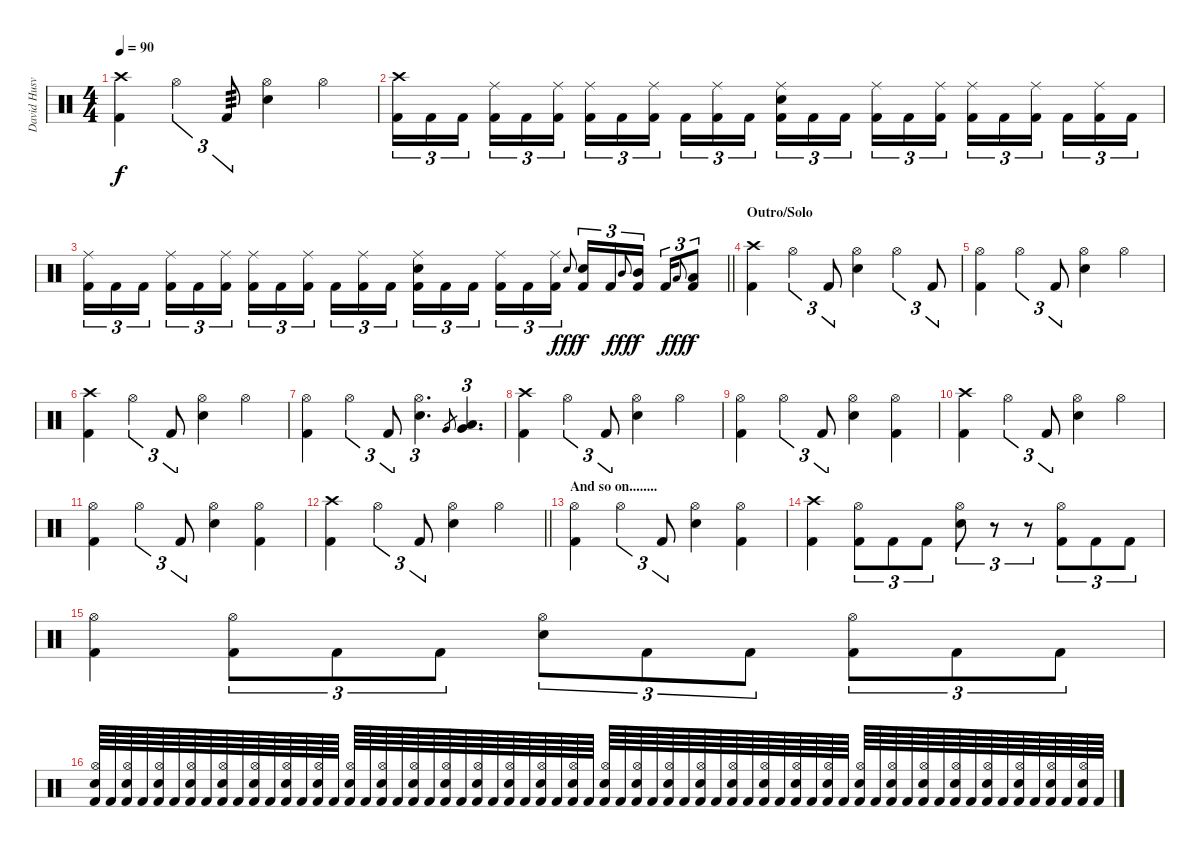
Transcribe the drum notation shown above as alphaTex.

\track ("David Husvik" "David Husv") {instrument percussion}
\staff {score}
\articulation defaults
\ts (4 4)
\tempo 90
\clef neutral
\ks c
("Crash high (hit)" "Kick (hit) 2").4{dy f} "Hi-Hat (open)".4{tu (3 2)} "Kick (hit) 2".8{tu (3 2) tp 3} ("Hi-Hat (open)" "Snare (hit) 2").4 "Hi-Hat (open)".4 |
("Kick (hit) 2" "Crash high (hit)").16{tu (3 2)} "Kick (hit) 2".16{tu (3 2)} "Kick (hit) 2".16{tu (3 2) beam splitsecondary} ("Kick (hit) 2" "Ride (middle)").16{tu (3 2)} "Kick (hit) 2".16{tu (3 2)} ("Kick (hit) 2" "Ride (middle)").16{tu (3 2)} ("Kick (hit) 2" "Ride (middle)").16{tu (3 2)} "Kick (hit) 2".16{tu (3 2)} ("Kick (hit) 2" "Ride (middle)").16{tu (3 2) beam splitsecondary} "Kick (hit) 2".16{tu (3 2)} ("Kick (hit) 2" "Ride (middle)").16{tu (3 2)} "Kick (hit) 2".16{tu (3 2)} ("Kick (hit) 2" "Snare (hit) 2" "Ride (middle)").16{tu (3 2)} "Kick (hit) 2".16{tu (3 2)} "Kick (hit) 2".16{tu (3 2) beam splitsecondary} ("Kick (hit) 2" "Ride (middle)").16{tu (3 2)} "Kick (hit) 2".16{tu (3 2)} ("Kick (hit) 2" "Ride (middle)").16{tu (3 2)} ("Kick (hit) 2" "Ride (middle)").16{tu (3 2)} "Kick (hit) 2".16{tu (3 2)} ("Kick (hit) 2" "Ride (middle)").16{tu (3 2) beam splitsecondary} "Kick (hit) 2".16{tu (3 2)} ("Kick (hit) 2" "Ride (middle)").16{tu (3 2)} "Kick (hit) 2".16{tu (3 2)} |
\barLineRight lightlight
("Kick (hit) 2" "Ride (middle)").16{tu (3 2)} "Kick (hit) 2".16{tu (3 2)} "Kick (hit) 2".16{tu (3 2) beam splitsecondary} ("Kick (hit) 2" "Ride (middle)").16{tu (3 2)} "Kick (hit) 2".16{tu (3 2)} ("Kick (hit) 2" "Ride (middle)").16{tu (3 2)} ("Kick (hit) 2" "Ride (middle)").16{tu (3 2)} "Kick (hit) 2".16{tu (3 2)} ("Kick (hit) 2" "Ride (middle)").16{tu (3 2) beam splitsecondary} "Kick (hit) 2".16{tu (3 2)} ("Kick (hit) 2" "Ride (middle)").16{tu (3 2)} "Kick (hit) 2".16{tu (3 2)} ("Kick (hit) 2" "Snare (hit) 2" "Ride (middle)").16{tu (3 2)} "Kick (hit) 2".16{tu (3 2)} "Kick (hit) 2".16{tu (3 2) beam splitsecondary} ("Kick (hit) 2" "Ride (middle)").16{tu (3 2)} "Kick (hit) 2".16{tu (3 2)} ("Kick (hit) 2" "Ride (middle)").16{tu (3 2)} "Snare (hit) 2".8{gr onbeat dy fff} ("Kick (hit) 2" "Snare (hit) 2").16{tu (3 2) dy f} "Kick (hit) 2".16{tu (3 2)} "Mid Tom (hit)".8{gr onbeat dy fff} ("Kick (hit) 2" "Mid Tom (hit)").16{tu (3 2) dy f beam splitsecondary} "Kick (hit) 2".16{tu (3 2)} "Low Tom (hit)".8{gr onbeat dy fff} ("Kick (hit) 2" "Low Tom (hit)").8{tu (3 2) dy f} |
\section ("" "Outro/Solo")
("Crash high (hit)" "Kick (hit) 2").4 "Hi-Hat (open)".4{tu (3 2)} "Kick (hit) 2".8{tu (3 2)} ("Hi-Hat (open)" "Snare (hit) 2").4 "Hi-Hat (open)".4{tu (3 2)} "Kick (hit) 2".8{tu (3 2)} |
("Hi-Hat (open)" "Kick (hit) 2").4 "Hi-Hat (open)".4{tu (3 2)} "Kick (hit) 2".8{tu (3 2)} ("Hi-Hat (open)" "Snare (hit) 2").4 "Hi-Hat (open)".4 |
("Crash high (hit)" "Kick (hit) 2").4 "Hi-Hat (open)".4{tu (3 2)} "Kick (hit) 2".8{tu (3 2)} ("Hi-Hat (open)" "Snare (hit) 2").4 "Hi-Hat (open)".4 |
("Hi-Hat (open)" "Kick (hit) 2").4 "Hi-Hat (open)".4{tu (3 2)} "Kick (hit) 2".8{tu (3 2)} ("Hi-Hat (open)" "Snare (hit) 2").4{d tu (3 2)} "Very Low Tom (hit)".8{gr} ("Very Low Tom (hit)" "Low Tom (hit)").4{d tu (3 2)} |
("Crash high (hit)" "Kick (hit) 2").4 "Hi-Hat (open)".4{tu (3 2)} "Kick (hit) 2".8{tu (3 2)} ("Hi-Hat (open)" "Snare (hit) 2").4 "Hi-Hat (open)".4 |
("Hi-Hat (open)" "Kick (hit) 2").4 "Hi-Hat (open)".4{tu (3 2)} "Kick (hit) 2".8{tu (3 2)} ("Hi-Hat (open)" "Snare (hit) 2").4 ("Hi-Hat (open)" "Kick (hit) 2").4 |
("Crash high (hit)" "Kick (hit) 2").4 "Hi-Hat (open)".4{tu (3 2)} "Kick (hit) 2".8{tu (3 2)} ("Hi-Hat (open)" "Snare (hit) 2").4 "Hi-Hat (open)".4 |
("Hi-Hat (open)" "Kick (hit) 2").4 "Hi-Hat (open)".4{tu (3 2)} "Kick (hit) 2".8{tu (3 2)} ("Hi-Hat (open)" "Snare (hit) 2").4 ("Hi-Hat (open)" "Kick (hit) 2").4 |
\barLineRight lightlight
("Crash high (hit)" "Kick (hit) 2").4 "Hi-Hat (open)".4{tu (3 2)} "Kick (hit) 2".8{tu (3 2)} ("Hi-Hat (open)" "Snare (hit) 2").4 "Hi-Hat (open)".4 |
\section ("" "And so on........")
("Hi-Hat (open)" "Kick (hit) 2").4 "Hi-Hat (open)".4{tu (3 2)} "Kick (hit) 2".8{tu (3 2)} ("Hi-Hat (open)" "Snare (hit) 2").4 ("Hi-Hat (open)" "Kick (hit) 2").4 |
("Kick (hit) 2" "Crash high (hit)").4 ("Hi-Hat (open)" "Kick (hit) 2").8{tu (3 2)} "Kick (hit) 2".8{tu (3 2)} "Kick (hit) 2".8{tu (3 2)} ("Hi-Hat (open)" "Snare (hit) 2").8{tu (3 2)} r.8{tu (3 2)} r.8{tu (3 2)} ("Kick (hit) 2" "Hi-Hat (open)").8{tu (3 2)} "Kick (hit) 2".8{tu (3 2)} "Kick (hit) 2".8{tu (3 2)} |
("Kick (hit) 2" "Hi-Hat (open)").4 ("Hi-Hat (open)" "Kick (hit) 2").8{tu (3 2)} "Kick (hit) 2".8{tu (3 2)} "Kick (hit) 2".8{tu (3 2)} ("Hi-Hat (open)" "Snare (hit) 2").8{tu (3 2)} "Kick (hit) 2".8{tu (3 2)} "Kick (hit) 2".8{tu (3 2)} ("Hi-Hat (open)" "Kick (hit) 2").8{tu (3 2)} "Kick (hit) 2".8{tu (3 2)} "Kick (hit) 2".8{tu (3 2)} |
("Kick (hit) 2" "Hi-Hat (open)" "Snare (hit) 2").64 "Kick (hit) 2".64 ("Kick (hit) 2" "Hi-Hat (open)" "Snare (hit) 2").64 "Kick (hit) 2".64 ("Kick (hit) 2" "Hi-Hat (open)" "Snare (hit) 2").64 "Kick (hit) 2".64 ("Kick (hit) 2" "Hi-Hat (open)" "Snare (hit) 2").64 "Kick (hit) 2".64 ("Kick (hit) 2" "Hi-Hat (open)" "Snare (hit) 2").64 "Kick (hit) 2".64 ("Kick (hit) 2" "Hi-Hat (open)" "Snare (hit) 2").64 "Kick (hit) 2".64 ("Kick (hit) 2" "Hi-Hat (open)" "Snare (hit) 2").64 "Kick (hit) 2".64 ("Kick (hit) 2" "Hi-Hat (open)" "Snare (hit) 2").64 "Kick (hit) 2".64 ("Kick (hit) 2" "Hi-Hat (open)" "Snare (hit) 2").64 "Kick (hit) 2".64 ("Kick (hit) 2" "Hi-Hat (open)" "Snare (hit) 2").64 "Kick (hit) 2".64 ("Kick (hit) 2" "Hi-Hat (open)" "Snare (hit) 2").64 "Kick (hit) 2".64 ("Kick (hit) 2" "Hi-Hat (open)" "Snare (hit) 2").64 "Kick (hit) 2".64 ("Kick (hit) 2" "Hi-Hat (open)" "Snare (hit) 2").64 "Kick (hit) 2".64 ("Kick (hit) 2" "Hi-Hat (open)" "Snare (hit) 2").64 "Kick (hit) 2".64 ("Kick (hit) 2" "Hi-Hat (open)" "Snare (hit) 2").64 "Kick (hit) 2".64 ("Kick (hit) 2" "Hi-Hat (open)" "Snare (hit) 2").64 "Kick (hit) 2".64 ("Kick (hit) 2" "Hi-Hat (open)" "Snare (hit) 2").64 "Kick (hit) 2".64 ("Kick (hit) 2" "Hi-Hat (open)" "Snare (hit) 2").64 "Kick (hit) 2".64 ("Kick (hit) 2" "Hi-Hat (open)" "Snare (hit) 2").64 "Kick (hit) 2".64 ("Kick (hit) 2" "Hi-Hat (open)" "Snare (hit) 2").64 "Kick (hit) 2".64 ("Kick (hit) 2" "Hi-Hat (open)" "Snare (hit) 2").64 "Kick (hit) 2".64 ("Kick (hit) 2" "Hi-Hat (open)" "Snare (hit) 2").64 "Kick (hit) 2".64 ("Kick (hit) 2" "Hi-Hat (open)" "Snare (hit) 2").64 "Kick (hit) 2".64 ("Kick (hit) 2" "Hi-Hat (open)" "Snare (hit) 2").64 "Kick (hit) 2".64 ("Kick (hit) 2" "Hi-Hat (open)" "Snare (hit) 2").64 "Kick (hit) 2".64 ("Kick (hit) 2" "Hi-Hat (open)" "Snare (hit) 2").64 "Kick (hit) 2".64 ("Kick (hit) 2" "Hi-Hat (open)" "Snare (hit) 2").64 "Kick (hit) 2".64 ("Kick (hit) 2" "Hi-Hat (open)" "Snare (hit) 2").64 "Kick (hit) 2".64 ("Kick (hit) 2" "Hi-Hat (open)" "Snare (hit) 2").64 "Kick (hit) 2".64 ("Kick (hit) 2" "Hi-Hat (open)" "Snare (hit) 2").64 "Kick (hit) 2".64 ("Kick (hit) 2" "Hi-Hat (open)" "Snare (hit) 2").64 "Kick (hit) 2".64 ("Kick (hit) 2" "Hi-Hat (open)" "Snare (hit) 2").64 "Kick (hit) 2".64
